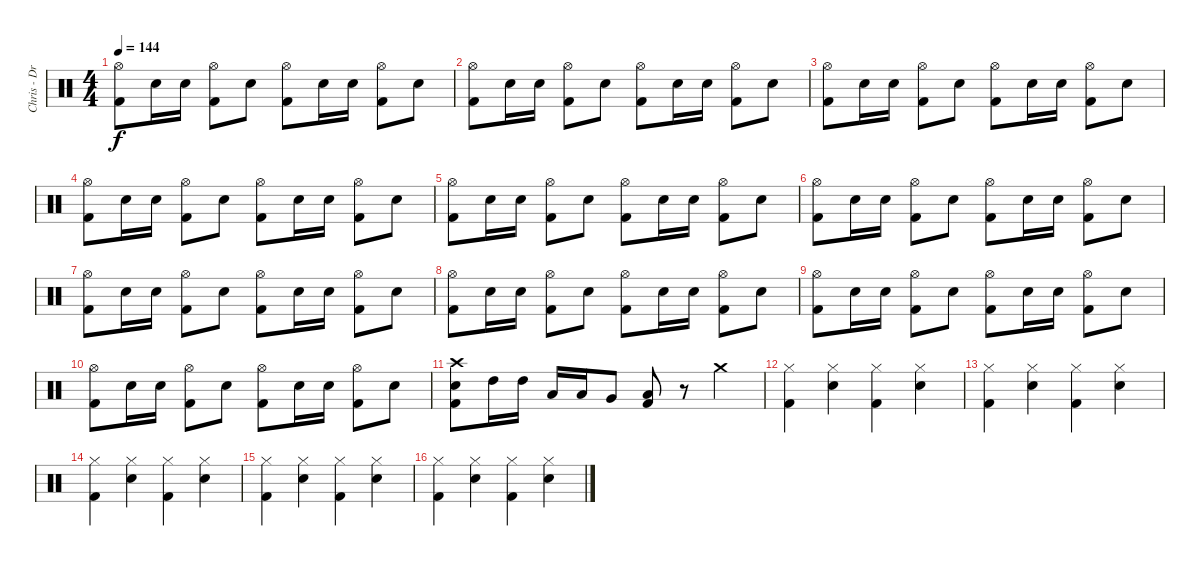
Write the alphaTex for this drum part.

\track ("Chris - Drums" "Chris - Dr") {instrument percussion}
\staff {score}
\articulation defaults
\ts (4 4)
\tempo 144
\clef neutral
\ks c
("Hi-Hat (open)" "Kick (hit) 2").8{dy f} "Electric Snare (hit)".16 "Electric Snare (hit)".16 ("Hi-Hat (open)" "Kick (hit) 2").8 "Electric Snare (hit)".8 ("Hi-Hat (open)" "Kick (hit) 2").8 "Electric Snare (hit)".16 "Electric Snare (hit)".16 ("Hi-Hat (open)" "Kick (hit) 2").8 "Electric Snare (hit)".8 |
("Hi-Hat (open)" "Kick (hit) 2").8 "Electric Snare (hit)".16 "Electric Snare (hit)".16 ("Hi-Hat (open)" "Kick (hit) 2").8 "Electric Snare (hit)".8 ("Hi-Hat (open)" "Kick (hit) 2").8 "Electric Snare (hit)".16 "Electric Snare (hit)".16 ("Hi-Hat (open)" "Kick (hit) 2").8 "Electric Snare (hit)".8 |
("Hi-Hat (open)" "Kick (hit) 2").8 "Electric Snare (hit)".16 "Electric Snare (hit)".16 ("Hi-Hat (open)" "Kick (hit) 2").8 "Electric Snare (hit)".8 ("Hi-Hat (open)" "Kick (hit) 2").8 "Electric Snare (hit)".16 "Electric Snare (hit)".16 ("Hi-Hat (open)" "Kick (hit) 2").8 "Electric Snare (hit)".8 |
("Hi-Hat (open)" "Kick (hit) 2").8 "Electric Snare (hit)".16 "Electric Snare (hit)".16 ("Hi-Hat (open)" "Kick (hit) 2").8 "Electric Snare (hit)".8 ("Hi-Hat (open)" "Kick (hit) 2").8 "Electric Snare (hit)".16 "Electric Snare (hit)".16 ("Hi-Hat (open)" "Kick (hit) 2").8 "Electric Snare (hit)".8 |
("Hi-Hat (open)" "Kick (hit) 2").8 "Electric Snare (hit)".16 "Electric Snare (hit)".16 ("Hi-Hat (open)" "Kick (hit) 2").8 "Electric Snare (hit)".8 ("Hi-Hat (open)" "Kick (hit) 2").8 "Electric Snare (hit)".16 "Electric Snare (hit)".16 ("Hi-Hat (open)" "Kick (hit) 2").8 "Electric Snare (hit)".8 |
("Hi-Hat (open)" "Kick (hit) 2").8 "Electric Snare (hit)".16 "Electric Snare (hit)".16 ("Hi-Hat (open)" "Kick (hit) 2").8 "Electric Snare (hit)".8 ("Hi-Hat (open)" "Kick (hit) 2").8 "Electric Snare (hit)".16 "Electric Snare (hit)".16 ("Hi-Hat (open)" "Kick (hit) 2").8 "Electric Snare (hit)".8 |
("Hi-Hat (open)" "Kick (hit) 2").8 "Electric Snare (hit)".16 "Electric Snare (hit)".16 ("Hi-Hat (open)" "Kick (hit) 2").8 "Electric Snare (hit)".8 ("Hi-Hat (open)" "Kick (hit) 2").8 "Electric Snare (hit)".16 "Electric Snare (hit)".16 ("Hi-Hat (open)" "Kick (hit) 2").8 "Electric Snare (hit)".8 |
("Hi-Hat (open)" "Kick (hit) 2").8 "Electric Snare (hit)".16 "Electric Snare (hit)".16 ("Hi-Hat (open)" "Kick (hit) 2").8 "Electric Snare (hit)".8 ("Hi-Hat (open)" "Kick (hit) 2").8 "Electric Snare (hit)".16 "Electric Snare (hit)".16 ("Hi-Hat (open)" "Kick (hit) 2").8 "Electric Snare (hit)".8 |
("Hi-Hat (open)" "Kick (hit) 2").8 "Electric Snare (hit)".16 "Electric Snare (hit)".16 ("Hi-Hat (open)" "Kick (hit) 2").8 "Electric Snare (hit)".8 ("Hi-Hat (open)" "Kick (hit) 2").8 "Electric Snare (hit)".16 "Electric Snare (hit)".16 ("Hi-Hat (open)" "Kick (hit) 2").8 "Electric Snare (hit)".8 |
("Hi-Hat (open)" "Kick (hit) 2").8 "Electric Snare (hit)".16 "Electric Snare (hit)".16 ("Hi-Hat (open)" "Kick (hit) 2").8 "Electric Snare (hit)".8 ("Hi-Hat (open)" "Kick (hit) 2").8 "Electric Snare (hit)".16 "Electric Snare (hit)".16 ("Hi-Hat (open)" "Kick (hit) 2").8 "Electric Snare (hit)".8 |
("Crash high (hit)" "Electric Snare (hit)" "Kick (hit) 2").8 "High Tom (hit)".16 "High Tom (hit)".16 "Low Tom (hit)".16 "Low Tom (hit)".16 "Very Low Tom (hit)".8 ("Low Floor Tom (hit)" "Kick (hit) 2").8 r.8 "Crash medium (hit)".4 |
("Hi-Hat (closed)" "Kick (hit) 2").4 ("Hi-Hat (closed)" "Electric Snare (hit)").4 ("Hi-Hat (closed)" "Kick (hit) 2").4 ("Hi-Hat (closed)" "Electric Snare (hit)").4 |
("Hi-Hat (closed)" "Kick (hit) 2").4 ("Hi-Hat (closed)" "Electric Snare (hit)").4 ("Hi-Hat (closed)" "Kick (hit) 2").4 ("Hi-Hat (closed)" "Electric Snare (hit)").4 |
("Hi-Hat (closed)" "Kick (hit) 2").4 ("Hi-Hat (closed)" "Electric Snare (hit)").4 ("Hi-Hat (closed)" "Kick (hit) 2").4 ("Hi-Hat (closed)" "Electric Snare (hit)").4 |
("Hi-Hat (closed)" "Kick (hit) 2").4 ("Hi-Hat (closed)" "Electric Snare (hit)").4 ("Hi-Hat (closed)" "Kick (hit) 2").4 ("Hi-Hat (closed)" "Electric Snare (hit)").4 |
("Hi-Hat (closed)" "Kick (hit) 2").4 ("Hi-Hat (closed)" "Electric Snare (hit)").4 ("Hi-Hat (closed)" "Kick (hit) 2").4 ("Hi-Hat (closed)" "Electric Snare (hit)").4
